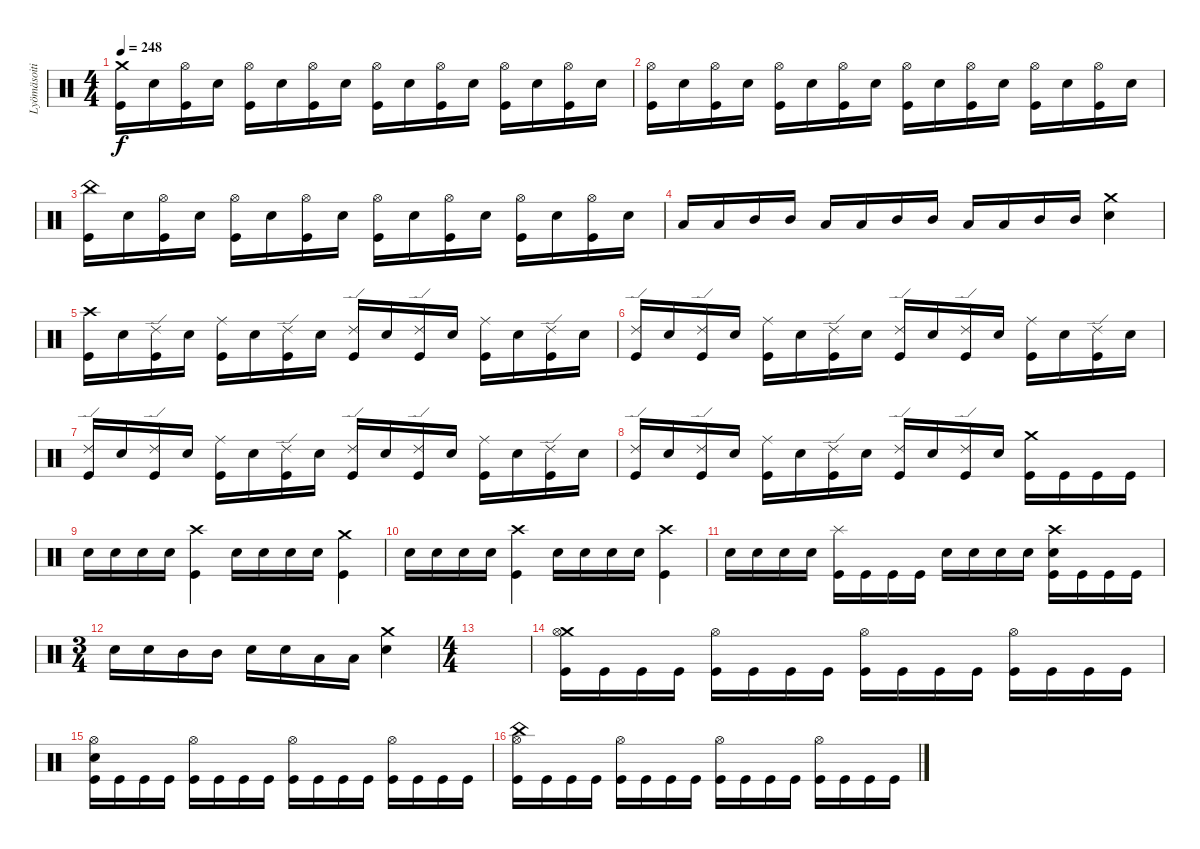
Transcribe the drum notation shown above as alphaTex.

\track ("Lyömäsoitin" "Lyömäsoiti") {instrument percussion}
\staff {score}
\articulation defaults
\ts (4 4)
\tempo 248
\clef neutral
\ks c
("Crash medium (hit)" "Kick (hit)").16{dy f} "Snare (hit) 2".16 ("Hi-Hat (open)" "Kick (hit)").16 "Snare (hit) 2".16 ("Hi-Hat (open)" "Kick (hit)").16 "Snare (hit) 2".16 ("Hi-Hat (open)" "Kick (hit)").16 "Snare (hit) 2".16 ("Hi-Hat (open)" "Kick (hit)").16 "Snare (hit) 2".16 ("Hi-Hat (open)" "Kick (hit)").16 "Snare (hit) 2".16 ("Hi-Hat (open)" "Kick (hit)").16 "Snare (hit) 2".16 ("Hi-Hat (open)" "Kick (hit)").16 "Snare (hit) 2".16 |
("Hi-Hat (open)" "Kick (hit)").16 "Snare (hit) 2".16 ("Hi-Hat (open)" "Kick (hit)").16 "Snare (hit) 2".16 ("Hi-Hat (open)" "Kick (hit)").16 "Snare (hit) 2".16 ("Hi-Hat (open)" "Kick (hit)").16 "Snare (hit) 2".16 ("Hi-Hat (open)" "Kick (hit)").16 "Snare (hit) 2".16 ("Hi-Hat (open)" "Kick (hit)").16 "Snare (hit) 2".16 ("Hi-Hat (open)" "Kick (hit)").16 "Snare (hit) 2".16 ("Hi-Hat (open)" "Kick (hit)").16 "Snare (hit) 2".16 |
("China (hit)" "Kick (hit)").16 "Snare (hit) 2".16 ("Hi-Hat (open)" "Kick (hit)").16 "Snare (hit) 2".16 ("Hi-Hat (open)" "Kick (hit)").16 "Snare (hit) 2".16 ("Hi-Hat (open)" "Kick (hit)").16 "Snare (hit) 2".16 ("Hi-Hat (open)" "Kick (hit)").16 "Snare (hit) 2".16 ("Hi-Hat (open)" "Kick (hit)").16 "Snare (hit) 2".16 ("Hi-Hat (open)" "Kick (hit)").16 "Snare (hit) 2".16 ("Hi-Hat (open)" "Kick (hit)").16 "Snare (hit) 2".16 |
"Low Tom (hit)".16 "Low Tom (hit)".16 "Mid Tom (hit)".16 "Mid Tom (hit)".16 "Low Tom (hit)".16 "Low Tom (hit)".16 "Mid Tom (hit)".16 "Mid Tom (hit)".16 "Low Tom (hit)".16 "Low Tom (hit)".16 "Mid Tom (hit)".16 "Mid Tom (hit)".16 ("Crash medium (hit)" "Snare (hit) 2").4 |
("Crash high (hit)" "Kick (hit)").16 "Snare (hit) 2".16 ("Ride (edge) 2" "Kick (hit)").16 "Snare (hit) 2".16 ("Ride (middle)" "Kick (hit)").16 "Snare (hit) 2".16 ("Ride (edge) 2" "Kick (hit)").16 "Snare (hit) 2".16 ("Ride (edge) 2" "Kick (hit)").16 "Snare (hit) 2".16 ("Ride (edge) 2" "Kick (hit)").16 "Snare (hit) 2".16 ("Ride (middle)" "Kick (hit)").16 "Snare (hit) 2".16 ("Ride (edge) 2" "Kick (hit)").16 "Snare (hit) 2".16 |
("Ride (edge) 2" "Kick (hit)").16 "Snare (hit) 2".16 ("Ride (edge) 2" "Kick (hit)").16 "Snare (hit) 2".16 ("Ride (middle)" "Kick (hit)").16 "Snare (hit) 2".16 ("Ride (edge) 2" "Kick (hit)").16 "Snare (hit) 2".16 ("Ride (edge) 2" "Kick (hit)").16 "Snare (hit) 2".16 ("Ride (edge) 2" "Kick (hit)").16 "Snare (hit) 2".16 ("Ride (middle)" "Kick (hit)").16 "Snare (hit) 2".16 ("Ride (edge) 2" "Kick (hit)").16 "Snare (hit) 2".16 |
("Ride (edge) 2" "Kick (hit)").16 "Snare (hit) 2".16 ("Ride (edge) 2" "Kick (hit)").16 "Snare (hit) 2".16 ("Ride (middle)" "Kick (hit)").16 "Snare (hit) 2".16 ("Ride (edge) 2" "Kick (hit)").16 "Snare (hit) 2".16 ("Ride (edge) 2" "Kick (hit)").16 "Snare (hit) 2".16 ("Ride (edge) 2" "Kick (hit)").16 "Snare (hit) 2".16 ("Ride (middle)" "Kick (hit)").16 "Snare (hit) 2".16 ("Ride (edge) 2" "Kick (hit)").16 "Snare (hit) 2".16 |
("Ride (edge) 2" "Kick (hit)").16 "Snare (hit) 2".16 ("Ride (edge) 2" "Kick (hit)").16 "Snare (hit) 2".16 ("Ride (middle)" "Kick (hit)").16 "Snare (hit) 2".16 ("Ride (edge) 2" "Kick (hit)").16 "Snare (hit) 2".16 ("Ride (edge) 2" "Kick (hit)").16 "Snare (hit) 2".16 ("Ride (edge) 2" "Kick (hit)").16 "Snare (hit) 2".16 ("Crash medium (hit)" "Kick (hit)").16 "Kick (hit)".16 "Kick (hit)".16 "Kick (hit)".16 |
"Snare (hit) 2".16 "Snare (hit) 2".16 "Snare (hit) 2".16 "Snare (hit) 2".16 ("Crash high (hit)" "Kick (hit)").4 "Snare (hit) 2".16 "Snare (hit) 2".16 "Snare (hit) 2".16 "Snare (hit) 2".16 ("Crash medium (hit)" "Kick (hit)").4 |
"Snare (hit) 2".16 "Snare (hit) 2".16 "Snare (hit) 2".16 "Snare (hit) 2".16 ("Crash high (hit)" "Kick (hit)").4 "Snare (hit) 2".16 "Snare (hit) 2".16 "Snare (hit) 2".16 "Snare (hit) 2".16 ("Crash high (hit)" "Kick (hit)").4 |
"Snare (hit) 2".16 "Snare (hit) 2".16 "Snare (hit) 2".16 "Snare (hit) 2".16 ("Splash (hit)" "Kick (hit)").16 "Kick (hit)".16 "Kick (hit)".16 "Kick (hit)".16 "Snare (hit) 2".16 "Snare (hit) 2".16 "Snare (hit) 2".16 "Snare (hit) 2".16 ("Crash high (hit)" "Snare (hit) 2" "Kick (hit)").16 "Kick (hit)".16 "Kick (hit)".16 "Kick (hit)".16 |
\ts (3 4)
"Snare (hit) 2".16 "Snare (hit) 2".16 "Mid Tom (hit)".16 "Mid Tom (hit)".16 "Snare (hit) 2".16 "Snare (hit) 2".16 "Low Tom (hit)".16 "Low Tom (hit)".16 ("Crash medium (hit)" "Snare (hit) 2").4 |
\ts (4 4)
|
("Crash medium (hit)" "Hi-Hat (open)" "Kick (hit)").16 "Kick (hit)".16 "Kick (hit)".16 "Kick (hit)".16 ("Hi-Hat (open)" "Kick (hit)").16 "Kick (hit)".16 "Kick (hit)".16 "Kick (hit)".16 ("Hi-Hat (open)" "Kick (hit)").16 "Kick (hit)".16 "Kick (hit)".16 "Kick (hit)".16 ("Hi-Hat (open)" "Kick (hit)").16 "Kick (hit)".16 "Kick (hit)".16 "Kick (hit)".16 |
("Hi-Hat (open)" "Snare (hit) 2" "Kick (hit)").16 "Kick (hit)".16 "Kick (hit)".16 "Kick (hit)".16 ("Hi-Hat (open)" "Kick (hit)").16 "Kick (hit)".16 "Kick (hit)".16 "Kick (hit)".16 ("Hi-Hat (open)" "Kick (hit)").16 "Kick (hit)".16 "Kick (hit)".16 "Kick (hit)".16 ("Hi-Hat (open)" "Kick (hit)").16 "Kick (hit)".16 "Kick (hit)".16 "Kick (hit)".16 |
("China (hit)" "Hi-Hat (open)" "Kick (hit)").16 "Kick (hit)".16 "Kick (hit)".16 "Kick (hit)".16 ("Hi-Hat (open)" "Kick (hit)").16 "Kick (hit)".16 "Kick (hit)".16 "Kick (hit)".16 ("Hi-Hat (open)" "Kick (hit)").16 "Kick (hit)".16 "Kick (hit)".16 "Kick (hit)".16 ("Hi-Hat (open)" "Kick (hit)").16 "Kick (hit)".16 "Kick (hit)".16 "Kick (hit)".16
